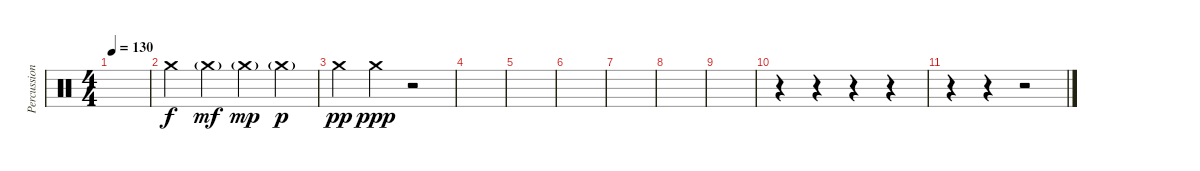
\track ("Percussion" "Percussion") {instrument percussion}
\staff {score}
\articulation defaults
\ts (4 4)
\tempo 130
\clef neutral
\ks c
|
"Crash medium (hit)".4{dy f} "Crash medium (hit)"{g}.4{dy mf} "Crash medium (hit)"{g}.4{dy mp} "Crash medium (hit)"{g}.4{dy p} |
"Crash medium (hit)".4{dy pp} "Crash medium (hit)".4{dy ppp} r.2 |
|
|
|
|
|
|
r.4 r.4 r.4 r.4 |
r.4 r.4 r.2
